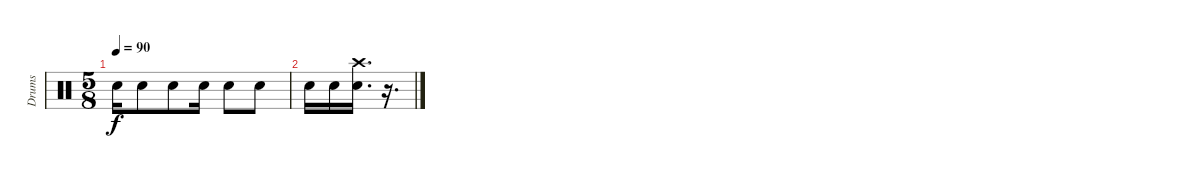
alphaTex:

\track ("Drums" "Drums") {instrument percussion}
\staff {score}
\articulation defaults
\ts (5 8)
\tempo 90
\clef neutral
\ks c "Electric Snare (hit)".16{dy f} "Electric Snare (hit)".8 "Electric Snare (hit)".8 "Electric Snare (hit)".16 "Electric Snare (hit)".8 "Electric Snare (hit)".8
|
"Electric Snare (hit)".16 "Electric Snare (hit)".16 ("Electric Snare (hit)" "Crash high (hit)").16{d} r.16{d}
